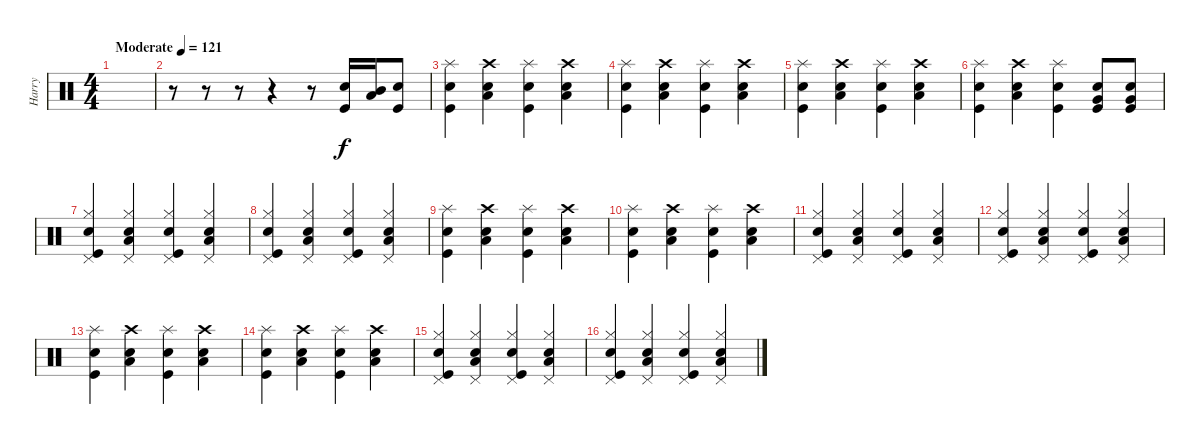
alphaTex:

\track ("Harry" "Harry") {instrument percussion}
\staff {score}
\articulation defaults
\ts (4 4)
\tempo (121 "Moderate")
\clef neutral
\ks c
|
r.8 r.8 r.8 r.4 r.8 ("Kick (hit)" "Snare (hit) 2").16 ("Low Tom (hit)" "Mid Tom (hit)").16 ("Kick (hit)" "Snare (hit) 2").8 |
("Splash (hit)" "Snare (hit) 2" "Kick (hit)").4 ("Crash high (hit)" "Snare (hit) 2" "Low Tom (hit)").4 ("Splash (hit)" "Snare (hit) 2" "Kick (hit)").4 ("Crash high (hit)" "Snare (hit) 2" "Low Tom (hit)").4 |
("Splash (hit)" "Snare (hit) 2" "Kick (hit)").4 ("Crash high (hit)" "Snare (hit) 2" "Low Tom (hit)").4 ("Splash (hit)" "Snare (hit) 2" "Kick (hit)").4 ("Crash high (hit)" "Snare (hit) 2" "Low Tom (hit)").4 |
("Splash (hit)" "Snare (hit) 2" "Kick (hit)").4 ("Crash high (hit)" "Snare (hit) 2" "Low Tom (hit)").4 ("Splash (hit)" "Snare (hit) 2" "Kick (hit)").4 ("Crash high (hit)" "Snare (hit) 2" "Low Tom (hit)").4 |
("Splash (hit)" "Snare (hit) 2" "Kick (hit)").4 ("Crash high (hit)" "Snare (hit) 2" "Low Tom (hit)").4 ("Splash (hit)" "Snare (hit) 2" "Kick (hit)").4 ("Very Low Tom (hit)" "Kick (hit)" "Snare (hit) 2").8 ("Very Low Tom (hit)" "Kick (hit)" "Snare (hit) 2").8 |
("Hi-Hat (closed)" "Pedal Hi-Hat (hit)" "Snare (hit) 2" "Kick (hit)").4 ("Hi-Hat (closed)" "Pedal Hi-Hat (hit)" "Snare (hit) 2" "Low Tom (hit)").4 ("Hi-Hat (closed)" "Pedal Hi-Hat (hit)" "Snare (hit) 2" "Kick (hit)").4 ("Hi-Hat (closed)" "Pedal Hi-Hat (hit)" "Snare (hit) 2" "Low Tom (hit)").4 |
("Hi-Hat (closed)" "Pedal Hi-Hat (hit)" "Snare (hit) 2" "Kick (hit)").4 ("Hi-Hat (closed)" "Pedal Hi-Hat (hit)" "Snare (hit) 2" "Low Tom (hit)").4 ("Hi-Hat (closed)" "Pedal Hi-Hat (hit)" "Snare (hit) 2" "Kick (hit)").4 ("Hi-Hat (closed)" "Pedal Hi-Hat (hit)" "Snare (hit) 2" "Low Tom (hit)").4 |
("Splash (hit)" "Snare (hit) 2" "Kick (hit)").4 ("Crash high (hit)" "Snare (hit) 2" "Low Tom (hit)").4 ("Splash (hit)" "Snare (hit) 2" "Kick (hit)").4 ("Crash high (hit)" "Snare (hit) 2" "Low Tom (hit)").4 |
("Splash (hit)" "Snare (hit) 2" "Kick (hit)").4 ("Crash high (hit)" "Snare (hit) 2" "Low Tom (hit)").4 ("Splash (hit)" "Snare (hit) 2" "Kick (hit)").4 ("Crash high (hit)" "Snare (hit) 2" "Low Tom (hit)").4 |
("Hi-Hat (closed)" "Pedal Hi-Hat (hit)" "Snare (hit) 2" "Kick (hit)").4 ("Hi-Hat (closed)" "Pedal Hi-Hat (hit)" "Snare (hit) 2" "Low Tom (hit)").4 ("Hi-Hat (closed)" "Pedal Hi-Hat (hit)" "Snare (hit) 2" "Kick (hit)").4 ("Hi-Hat (closed)" "Pedal Hi-Hat (hit)" "Snare (hit) 2" "Low Tom (hit)").4 |
("Hi-Hat (closed)" "Pedal Hi-Hat (hit)" "Snare (hit) 2" "Kick (hit)").4 ("Hi-Hat (closed)" "Pedal Hi-Hat (hit)" "Snare (hit) 2" "Low Tom (hit)").4 ("Hi-Hat (closed)" "Pedal Hi-Hat (hit)" "Snare (hit) 2" "Kick (hit)").4 ("Hi-Hat (closed)" "Pedal Hi-Hat (hit)" "Snare (hit) 2" "Low Tom (hit)").4 |
("Splash (hit)" "Snare (hit) 2" "Kick (hit)").4 ("Crash high (hit)" "Snare (hit) 2" "Low Tom (hit)").4 ("Splash (hit)" "Snare (hit) 2" "Kick (hit)").4 ("Crash high (hit)" "Snare (hit) 2" "Low Tom (hit)").4 |
("Splash (hit)" "Snare (hit) 2" "Kick (hit)").4 ("Crash high (hit)" "Snare (hit) 2" "Low Tom (hit)").4 ("Splash (hit)" "Snare (hit) 2" "Kick (hit)").4 ("Crash high (hit)" "Snare (hit) 2" "Low Tom (hit)").4 |
("Hi-Hat (closed)" "Pedal Hi-Hat (hit)" "Snare (hit) 2" "Kick (hit)").4 ("Hi-Hat (closed)" "Pedal Hi-Hat (hit)" "Snare (hit) 2" "Low Tom (hit)").4 ("Hi-Hat (closed)" "Pedal Hi-Hat (hit)" "Snare (hit) 2" "Kick (hit)").4 ("Hi-Hat (closed)" "Pedal Hi-Hat (hit)" "Snare (hit) 2" "Low Tom (hit)").4 |
("Hi-Hat (closed)" "Pedal Hi-Hat (hit)" "Snare (hit) 2" "Kick (hit)").4 ("Hi-Hat (closed)" "Pedal Hi-Hat (hit)" "Snare (hit) 2" "Low Tom (hit)").4 ("Hi-Hat (closed)" "Pedal Hi-Hat (hit)" "Snare (hit) 2" "Kick (hit)").4 ("Hi-Hat (closed)" "Pedal Hi-Hat (hit)" "Snare (hit) 2" "Low Tom (hit)").4
